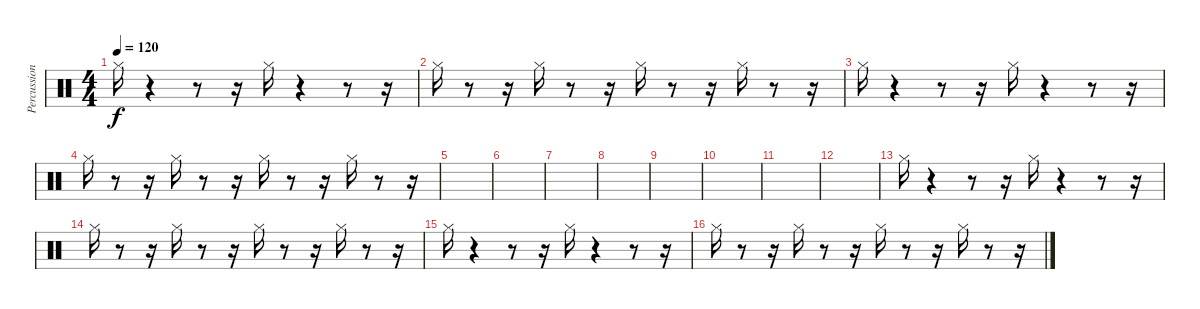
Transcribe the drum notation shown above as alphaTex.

\track ("Percussion" "Percussion") {instrument percussion}
\staff {score}
\articulation defaults
\ts (4 4)
\tempo 120
\clef neutral
\ks c "Hi-Hat (closed)".16{dy f}
r.4 r.8 r.16 "Hi-Hat (closed)".16 r.4 r.8 r.16 |
"Hi-Hat (closed)".16 r.8 r.16 "Hi-Hat (closed)".16 r.8 r.16 "Hi-Hat (closed)".16 r.8 r.16 "Hi-Hat (closed)".16 r.8 r.16 |
"Hi-Hat (closed)".16 r.4 r.8 r.16 "Hi-Hat (closed)".16 r.4 r.8 r.16 |
"Hi-Hat (closed)".16 r.8 r.16 "Hi-Hat (closed)".16 r.8 r.16 "Hi-Hat (closed)".16 r.8 r.16 "Hi-Hat (closed)".16 r.8 r.16 |
|
|
|
|
|
|
|
|
"Hi-Hat (closed)".16 r.4 r.8 r.16 "Hi-Hat (closed)".16 r.4 r.8 r.16 |
"Hi-Hat (closed)".16 r.8 r.16 "Hi-Hat (closed)".16 r.8 r.16 "Hi-Hat (closed)".16 r.8 r.16 "Hi-Hat (closed)".16 r.8 r.16 |
"Hi-Hat (closed)".16 r.4 r.8 r.16 "Hi-Hat (closed)".16 r.4 r.8 r.16 |
"Hi-Hat (closed)".16 r.8 r.16 "Hi-Hat (closed)".16 r.8 r.16 "Hi-Hat (closed)".16 r.8 r.16 "Hi-Hat (closed)".16 r.8 r.16
